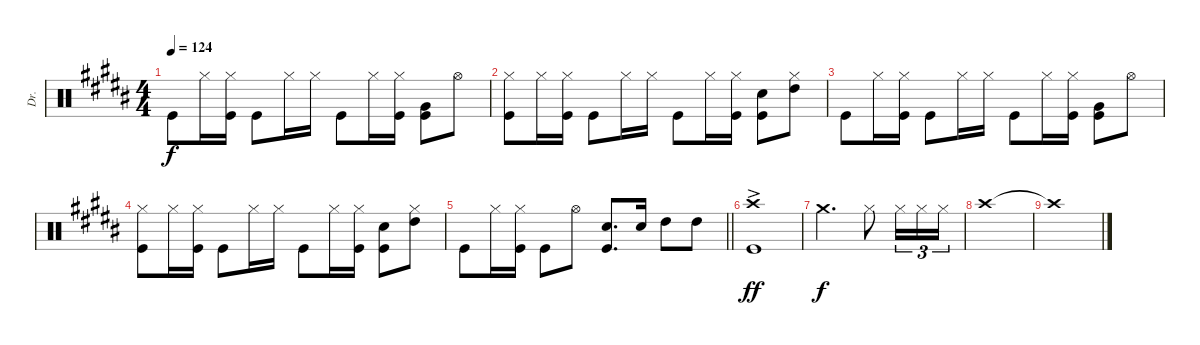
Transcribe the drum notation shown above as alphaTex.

\track ("Dr." "Dr.") {instrument percussion}
\staff {score}
\articulation defaults
\ts (4 4)
\tempo 124
\clef neutral
\ks b "Kick (hit)".8{dy f} "Hi-Hat (closed)".16
("Hi-Hat (closed)" "Kick (hit)").16 "Kick (hit)".8 "Hi-Hat (closed)".16 "Hi-Hat (closed)".16 "Kick (hit)".8 "Hi-Hat (closed)".16 ("Kick (hit)" "Hi-Hat (closed)").16 ("Kick (hit)" "Very Low Tom (hit)").8 "Hi-Hat (open)".8 |
("Hi-Hat (closed)" "Kick (hit)").8 "Hi-Hat (closed)".16 ("Hi-Hat (closed)" "Kick (hit)").16 "Kick (hit)".8 "Hi-Hat (closed)".16 "Hi-Hat (closed)".16 "Kick (hit)".8 "Hi-Hat (closed)".16 ("Hi-Hat (closed)" "Kick (hit)").16 ("Kick (hit)" "Snare (hit) 2").8 ("Hi-Hat (closed)" "High Tom (hit)").8 |
"Kick (hit)".8 "Hi-Hat (closed)".16 ("Hi-Hat (closed)" "Kick (hit)").16 "Kick (hit)".8 "Hi-Hat (closed)".16 "Hi-Hat (closed)".16 "Kick (hit)".8 "Hi-Hat (closed)".16 ("Hi-Hat (closed)" "Kick (hit)").16 ("Kick (hit)" "Very Low Tom (hit)").8 "Hi-Hat (open)".8 |
("Kick (hit)" "Hi-Hat (closed)").8 "Hi-Hat (closed)".16 ("Hi-Hat (closed)" "Kick (hit)").16 "Kick (hit)".8 "Hi-Hat (closed)".16 "Hi-Hat (closed)".16 "Kick (hit)".8 "Hi-Hat (closed)".16 ("Hi-Hat (closed)" "Kick (hit)").16 ("Kick (hit)" "Snare (hit) 2").8 ("Hi-Hat (closed)" "High Tom (hit)").8 |
\barLineRight lightlight "Kick (hit)".8 "Hi-Hat (closed)".16
("Hi-Hat (closed)" "Kick (hit)").16 "Kick (hit)".8 "Hi-Hat (open)".8 ("Snare (hit) 2" "Kick (hit)").8{d} "Snare (hit) 2".16 "High Tom (hit)".8 "High Tom (hit)".8 |
("Crash high (hit)"{ac} "Kick (hit)"{ac}).1{dy ff} |
"Crash medium (hit)".2{d dy f volume 10} "Hi-Hat (closed)".8{volume 11} "Hi-Hat (closed)".16{tu (3 2)} "Hi-Hat (closed)".16{tu (3 2)} "Hi-Hat (closed)".16{tu (3 2)} |
"Crash high (hit)".1 |
"Crash high (hit)"{t}.1
